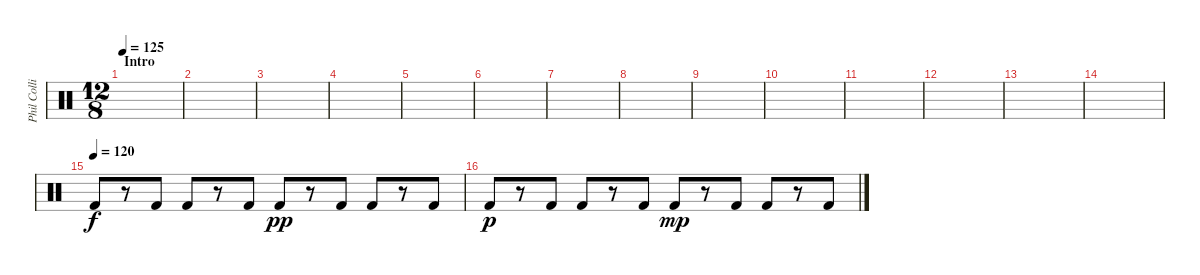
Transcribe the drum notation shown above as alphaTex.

\track ("Phil Collins (drums)" "Phil Colli") {instrument percussion}
\staff {score}
\articulation defaults
\ts (12 8)
\section ("" "Intro")
\tempo 125
\tempo 110
\tempo 125
\clef neutral
\ks c
|
|
|
|
|
|
|
|
|
|
|
|
|
|
\tempo (120)
"Kick (hit) 2".8 r.8 "Kick (hit) 2".8 "Kick (hit) 2".8 r.8 "Kick (hit) 2".8 "Kick (hit) 2".8{dy pp} r.8 "Kick (hit) 2".8 "Kick (hit) 2".8 r.8 "Kick (hit) 2".8 |
"Kick (hit) 2".8{dy p} r.8 "Kick (hit) 2".8 "Kick (hit) 2".8 r.8 "Kick (hit) 2".8 "Kick (hit) 2".8{dy mp} r.8 "Kick (hit) 2".8 "Kick (hit) 2".8 r.8 "Kick (hit) 2".8
